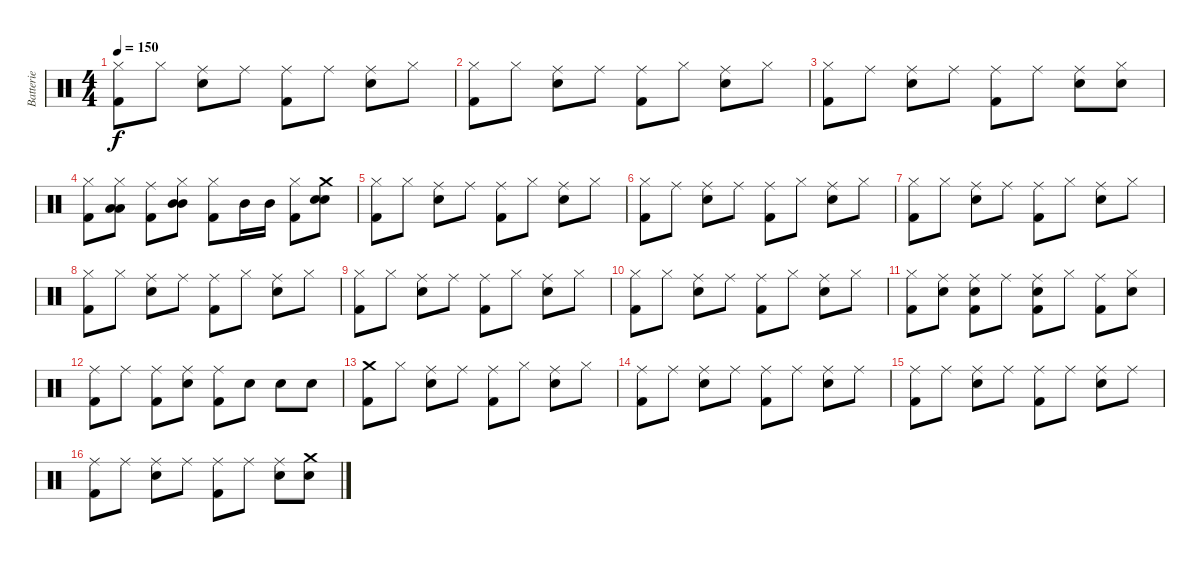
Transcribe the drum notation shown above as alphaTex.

\track ("Batterie" "Batterie") {instrument percussion}
\staff {score}
\articulation defaults
\ts (4 4)
\tempo 150
\clef neutral
\ks c
("Hi-Hat (closed)" "Kick (hit) 2").8{dy f} "Hi-Hat (closed)".8 ("Ride (middle)" "Electric Snare (hit)").8 "Ride (middle)".8 ("Ride (middle)" "Kick (hit) 2").8 "Ride (middle)".8 ("Ride (middle)" "Electric Snare (hit)").8 "Hi-Hat (closed)".8 |
("Hi-Hat (closed)" "Kick (hit) 2").8 "Hi-Hat (closed)".8 ("Ride (middle)" "Electric Snare (hit)").8 "Ride (middle)".8 ("Ride (middle)" "Kick (hit) 2").8 "Hi-Hat (closed)".8 ("Ride (middle)" "Electric Snare (hit)").8 "Hi-Hat (closed)".8 |
("Hi-Hat (closed)" "Kick (hit) 2").8 "Ride (middle)".8 ("Ride (middle)" "Electric Snare (hit)").8 "Ride (middle)".8 ("Ride (middle)" "Kick (hit) 2").8 "Ride (middle)".8 ("Ride (middle)" "Electric Snare (hit)").8 ("Hi-Hat (closed)" "Electric Snare (hit)").8 |
("Hi-Hat (closed)" "Kick (hit) 2").8 ("Hi-Hat (closed)" "Low Tom (hit)" "Low Tom (hit)").8 ("Ride (middle)" "Kick (hit) 2").8 ("Hi-Hat (closed)" "Mid Tom (hit)" "Mid Tom (hit)").8 ("Hi-Hat (closed)" "Kick (hit) 2").8 "Mid Tom (hit)".16 "Mid Tom (hit)".16 ("Hi-Hat (closed)" "Kick (hit) 2").8 ("Crash medium (hit)" "Electric Snare (hit)" "Electric Snare (hit)").8 |
("Hi-Hat (closed)" "Kick (hit) 2").8 "Hi-Hat (closed)".8 ("Ride (middle)" "Electric Snare (hit)").8 "Ride (middle)".8 ("Ride (middle)" "Kick (hit) 2").8 "Hi-Hat (closed)".8 ("Ride (middle)" "Electric Snare (hit)").8 "Hi-Hat (closed)".8 |
("Hi-Hat (closed)" "Kick (hit) 2").8 "Ride (middle)".8 ("Ride (middle)" "Electric Snare (hit)").8 "Ride (middle)".8 ("Ride (middle)" "Kick (hit) 2").8 "Hi-Hat (closed)".8 ("Ride (middle)" "Electric Snare (hit)").8 "Hi-Hat (closed)".8 |
("Hi-Hat (closed)" "Kick (hit) 2").8 "Hi-Hat (closed)".8 ("Ride (middle)" "Electric Snare (hit)").8 "Ride (middle)".8 ("Ride (middle)" "Kick (hit) 2").8 "Hi-Hat (closed)".8 ("Ride (middle)" "Electric Snare (hit)").8 "Hi-Hat (closed)".8 |
("Hi-Hat (closed)" "Kick (hit) 2").8 "Hi-Hat (closed)".8 ("Ride (middle)" "Electric Snare (hit)").8 "Ride (middle)".8 ("Ride (middle)" "Kick (hit) 2").8 "Hi-Hat (closed)".8 ("Ride (middle)" "Electric Snare (hit)").8 "Hi-Hat (closed)".8 |
("Hi-Hat (closed)" "Kick (hit) 2").8 "Hi-Hat (closed)".8 ("Ride (middle)" "Electric Snare (hit)").8 "Ride (middle)".8 ("Ride (middle)" "Kick (hit) 2").8 "Hi-Hat (closed)".8 ("Ride (middle)" "Electric Snare (hit)").8 "Hi-Hat (closed)".8 |
("Hi-Hat (closed)" "Kick (hit) 2").8 "Hi-Hat (closed)".8 ("Ride (middle)" "Electric Snare (hit)").8 "Ride (middle)".8 ("Ride (middle)" "Kick (hit) 2").8 "Hi-Hat (closed)".8 ("Ride (middle)" "Electric Snare (hit)").8 "Hi-Hat (closed)".8 |
("Hi-Hat (closed)" "Kick (hit) 2").8 ("Ride (middle)" "Electric Snare (hit)").8 ("Ride (middle)" "Electric Snare (hit)" "Kick (hit) 2").8 "Ride (middle)".8 ("Ride (middle)" "Electric Snare (hit)" "Kick (hit) 2").8 "Hi-Hat (closed)".8 ("Ride (middle)" "Kick (hit) 2").8 ("Hi-Hat (closed)" "Electric Snare (hit)").8 |
("Ride (middle)" "Kick (hit) 2").8 "Ride (middle)".8 ("Ride (middle)" "Kick (hit) 2").8 ("Ride (middle)" "Electric Snare (hit)").8 ("Ride (middle)" "Kick (hit) 2").8 "Electric Snare (hit)".8 "Electric Snare (hit)".8 "Electric Snare (hit)".8 |
("Crash medium (hit)" "Kick (hit) 2").8 "Hi-Hat (closed)".8 ("Ride (middle)" "Electric Snare (hit)").8 "Ride (middle)".8 ("Ride (middle)" "Kick (hit) 2").8 "Hi-Hat (closed)".8 ("Ride (middle)" "Electric Snare (hit)").8 "Hi-Hat (closed)".8 |
("Ride (middle)" "Kick (hit) 2").8 "Ride (middle)".8 ("Ride (middle)" "Electric Snare (hit)").8 "Ride (middle)".8 ("Ride (middle)" "Kick (hit) 2").8 "Ride (middle)".8 ("Ride (middle)" "Electric Snare (hit)").8 "Ride (middle)".8 |
("Ride (middle)" "Kick (hit) 2").8 "Ride (middle)".8 ("Ride (middle)" "Electric Snare (hit)").8 "Ride (middle)".8 ("Ride (middle)" "Kick (hit) 2").8 "Ride (middle)".8 ("Ride (middle)" "Electric Snare (hit)").8 "Ride (middle)".8 |
("Ride (middle)" "Kick (hit) 2").8 "Ride (middle)".8 ("Ride (middle)" "Electric Snare (hit)").8 "Ride (middle)".8 ("Ride (middle)" "Kick (hit) 2").8 "Ride (middle)".8 ("Ride (middle)" "Electric Snare (hit)").8 ("Crash medium (hit)" "Electric Snare (hit)").8
